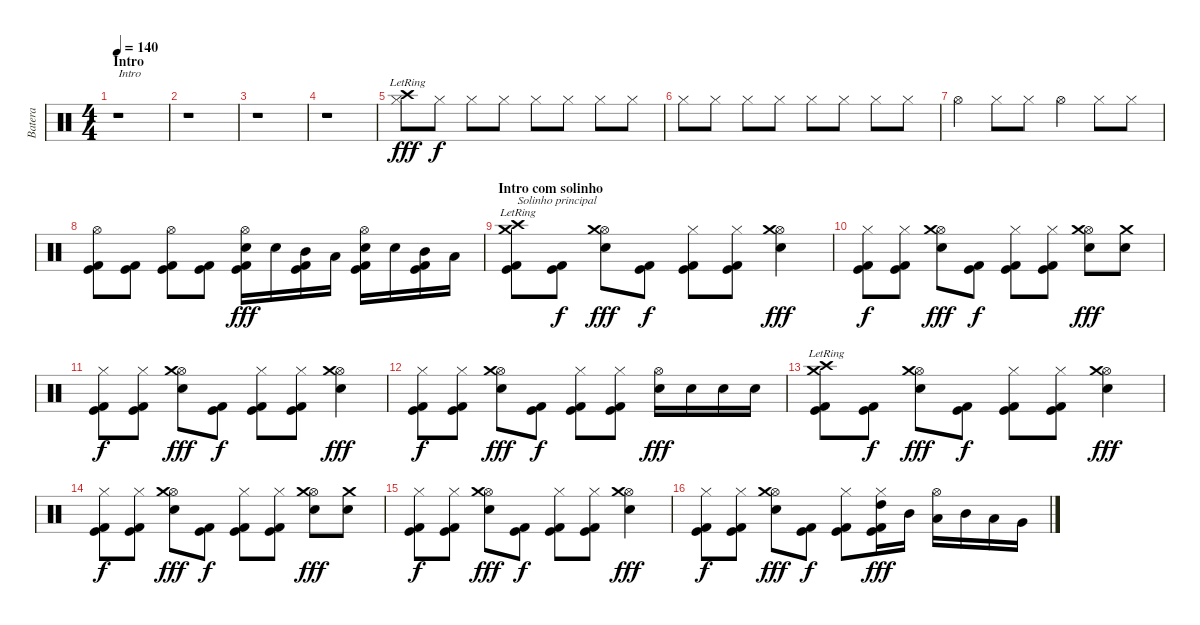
\track ("Batera" "Batera") {instrument percussion}
\staff {score}
\articulation defaults
\ts (4 4)
\section ("" "Intro")
\tempo 140
\clef neutral
\ks c
r.1{txt "Intro" dy fff} |
r.1 |
r.1 |
r.1 |
("Hi-Hat (closed)" "Crash high (hit)"{lr}).8 "Hi-Hat (closed)".8{dy f} "Hi-Hat (closed)".8 "Hi-Hat (closed)".8 "Hi-Hat (closed)".8 "Hi-Hat (closed)".8 "Hi-Hat (closed)".8 "Hi-Hat (closed)".8 |
"Hi-Hat (closed)".8 "Hi-Hat (closed)".8 "Hi-Hat (closed)".8 "Hi-Hat (closed)".8 "Hi-Hat (closed)".8 "Hi-Hat (closed)".8 "Hi-Hat (closed)".8 "Hi-Hat (closed)".8 |
"Hi-Hat (open)".4 "Hi-Hat (closed)".8 "Hi-Hat (closed)".8 "Hi-Hat (open)".4 "Hi-Hat (closed)".8 "Hi-Hat (closed)".8 |
("Hi-Hat (open)" "Kick (hit)" "Kick (hit) 2").8 ("Kick (hit)" "Kick (hit) 2").8 ("Hi-Hat (open)" "Kick (hit)" "Kick (hit) 2").8 ("Kick (hit)" "Kick (hit) 2").8 ("Hi-Hat (open)" "Kick (hit)" "Metronome (bell)" "Kick (hit) 2").16{dy fff} "Metronome (bell)".16 ("Kick (hit)" "Mid Tom (hit)" "Kick (hit) 2").16 "Low Tom (hit)".16 ("Hi-Hat (open)" "Kick (hit)" "Metronome (bell)" "Kick (hit) 2").16 "Metronome (bell)".16 ("Kick (hit)" "Mid Tom (hit)" "Kick (hit) 2").16 "Low Tom (hit)".16 |
\section ("" "Intro com solinho")
("Kick (hit)" "Crash medium (hit)"{lr} "Crash high (hit)"{lr} "Kick (hit) 2").8{txt "Solinho principal"} ("Kick (hit)" "Kick (hit) 2").8{dy f} ("Hi-Hat (open)" "Electric Snare (hit)" "Crash medium (hit)").8{dy fff} ("Kick (hit)" "Kick (hit) 2").8{dy f} ("Hi-Hat (closed)" "Kick (hit)" "Kick (hit) 2").8 ("Hi-Hat (closed)" "Kick (hit)" "Kick (hit) 2").8 ("Hi-Hat (open)" "Electric Snare (hit)" "Crash medium (hit)").4{dy fff} |
("Hi-Hat (closed)" "Kick (hit)" "Kick (hit) 2").8{dy f} ("Hi-Hat (closed)" "Kick (hit)" "Kick (hit) 2").8 ("Hi-Hat (open)" "Electric Snare (hit)" "Crash medium (hit)").8{dy fff} ("Kick (hit)" "Kick (hit) 2").8{dy f} ("Hi-Hat (closed)" "Kick (hit)" "Kick (hit) 2").8 ("Hi-Hat (closed)" "Kick (hit)" "Kick (hit) 2").8 ("Hi-Hat (open)" "Electric Snare (hit)" "Crash medium (hit)").8{dy fff} ("Electric Snare (hit)" "Crash medium (hit)").8 |
("Hi-Hat (closed)" "Kick (hit)" "Kick (hit) 2").8{dy f} ("Hi-Hat (closed)" "Kick (hit)" "Kick (hit) 2").8 ("Hi-Hat (open)" "Electric Snare (hit)" "Crash medium (hit)").8{dy fff} ("Kick (hit)" "Kick (hit) 2").8{dy f} ("Hi-Hat (closed)" "Kick (hit)" "Kick (hit) 2").8 ("Hi-Hat (closed)" "Kick (hit)" "Kick (hit) 2").8 ("Hi-Hat (open)" "Electric Snare (hit)" "Crash medium (hit)").4{dy fff} |
("Hi-Hat (closed)" "Kick (hit)" "Kick (hit) 2").8{dy f} ("Hi-Hat (closed)" "Kick (hit)" "Kick (hit) 2").8 ("Hi-Hat (open)" "Electric Snare (hit)" "Crash medium (hit)").8{dy fff} ("Kick (hit)" "Kick (hit) 2").8{dy f} ("Hi-Hat (closed)" "Kick (hit)" "Kick (hit) 2").8 ("Hi-Hat (closed)" "Kick (hit)" "Kick (hit) 2").8 ("Hi-Hat (open)" "Metronome (bell)").16{dy fff} "Metronome (bell)".16 "Metronome (bell)".16 "Metronome (bell)".16 |
("Kick (hit)" "Crash medium (hit)"{lr} "Crash high (hit)"{lr} "Kick (hit) 2").8 ("Kick (hit)" "Kick (hit) 2").8{dy f} ("Hi-Hat (open)" "Electric Snare (hit)" "Crash medium (hit)").8{dy fff} ("Kick (hit)" "Kick (hit) 2").8{dy f} ("Hi-Hat (closed)" "Kick (hit)" "Kick (hit) 2").8 ("Hi-Hat (closed)" "Kick (hit)" "Kick (hit) 2").8 ("Hi-Hat (open)" "Electric Snare (hit)" "Crash medium (hit)").4{dy fff} |
("Hi-Hat (closed)" "Kick (hit)" "Kick (hit) 2").8{dy f} ("Hi-Hat (closed)" "Kick (hit)" "Kick (hit) 2").8 ("Hi-Hat (open)" "Electric Snare (hit)" "Crash medium (hit)").8{dy fff} ("Kick (hit)" "Kick (hit) 2").8{dy f} ("Hi-Hat (closed)" "Kick (hit)" "Kick (hit) 2").8 ("Hi-Hat (closed)" "Kick (hit)" "Kick (hit) 2").8 ("Hi-Hat (open)" "Electric Snare (hit)" "Crash medium (hit)").8{dy fff} ("Electric Snare (hit)" "Crash medium (hit)").8 |
("Hi-Hat (closed)" "Kick (hit)" "Kick (hit) 2").8{dy f} ("Hi-Hat (closed)" "Kick (hit)" "Kick (hit) 2").8 ("Hi-Hat (open)" "Electric Snare (hit)" "Crash medium (hit)").8{dy fff} ("Kick (hit)" "Kick (hit) 2").8{dy f} ("Hi-Hat (closed)" "Kick (hit)" "Kick (hit) 2").8 ("Hi-Hat (closed)" "Kick (hit)" "Kick (hit) 2").8 ("Hi-Hat (open)" "Electric Snare (hit)" "Crash medium (hit)").4{dy fff} |
("Hi-Hat (closed)" "Kick (hit)" "Kick (hit) 2").8{dy f} ("Hi-Hat (closed)" "Kick (hit)" "Kick (hit) 2").8 ("Hi-Hat (open)" "Electric Snare (hit)" "Crash medium (hit)").8{dy fff} ("Kick (hit)" "Kick (hit) 2").8{dy f} ("Hi-Hat (closed)" "Kick (hit)" "Kick (hit) 2").8 ("Hi-Hat (closed)" "Kick (hit)" "High Tom (hit)" "Kick (hit) 2").16{dy fff} "Mid Tom (hit)".16 ("Hi-Hat (open)" "Low Tom (hit)").16 "Mid Tom (hit)".16 "Low Tom (hit)".16 "Very Low Tom (hit)".16
